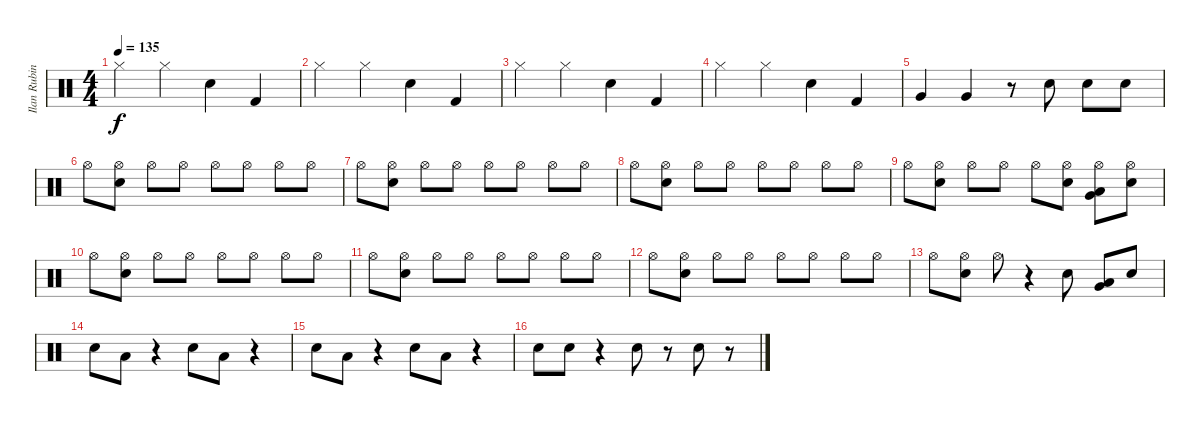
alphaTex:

\track ("Ilan Rubin" "Ilan Rubin") {instrument percussion}
\staff {score}
\articulation defaults
\ts (4 4)
\tempo 135
\clef neutral
\ks c "Hi-Hat (closed)".4{dy f} "Hi-Hat (closed)".4 "Electric Snare (hit)".4 "Kick (hit) 2".4
|
"Hi-Hat (closed)".4 "Hi-Hat (closed)".4 "Snare (hit) 2".4 "Kick (hit) 2".4 |
"Hi-Hat (closed)".4 "Hi-Hat (closed)".4 "Electric Snare (hit)".4 "Kick (hit) 2".4 |
"Hi-Hat (closed)".4 "Hi-Hat (closed)".4 "Snare (hit) 2".4 "Kick (hit) 2".4 |
"Very Low Tom (hit)".4 "Very Low Tom (hit)".4 r.8 "Electric Snare (hit)".8 "Electric Snare (hit)".8 "Electric Snare (hit)".8 |
"Hi-Hat (open)".8 ("Hi-Hat (open)" "Electric Snare (hit)").8 "Hi-Hat (open)".8 "Hi-Hat (open)".8 "Hi-Hat (open)".8 "Hi-Hat (open)".8 "Hi-Hat (open)".8 "Hi-Hat (open)".8 |
"Hi-Hat (open)".8 ("Hi-Hat (open)" "Electric Snare (hit)").8 "Hi-Hat (open)".8 "Hi-Hat (open)".8 "Hi-Hat (open)".8 "Hi-Hat (open)".8 "Hi-Hat (open)".8 "Hi-Hat (open)".8 |
"Hi-Hat (open)".8 ("Hi-Hat (open)" "Electric Snare (hit)").8 "Hi-Hat (open)".8 "Hi-Hat (open)".8 "Hi-Hat (open)".8 "Hi-Hat (open)".8 "Hi-Hat (open)".8 "Hi-Hat (open)".8 |
"Hi-Hat (open)".8 ("Hi-Hat (open)" "Electric Snare (hit)").8 "Hi-Hat (open)".8 "Hi-Hat (open)".8 "Hi-Hat (open)".8 ("Hi-Hat (open)" "Electric Snare (hit)").8 ("Hi-Hat (open)" "Very Low Tom (hit)" "Low Tom (hit)").8 ("Hi-Hat (open)" "Electric Snare (hit)").8 |
"Hi-Hat (open)".8 ("Hi-Hat (open)" "Electric Snare (hit)").8 "Hi-Hat (open)".8 "Hi-Hat (open)".8 "Hi-Hat (open)".8 "Hi-Hat (open)".8 "Hi-Hat (open)".8 "Hi-Hat (open)".8 |
"Hi-Hat (open)".8 ("Hi-Hat (open)" "Electric Snare (hit)").8 "Hi-Hat (open)".8 "Hi-Hat (open)".8 "Hi-Hat (open)".8 "Hi-Hat (open)".8 "Hi-Hat (open)".8 "Hi-Hat (open)".8 |
"Hi-Hat (open)".8 ("Hi-Hat (open)" "Electric Snare (hit)").8 "Hi-Hat (open)".8 "Hi-Hat (open)".8 "Hi-Hat (open)".8 "Hi-Hat (open)".8 "Hi-Hat (open)".8 "Hi-Hat (open)".8 |
"Hi-Hat (open)".8 ("Hi-Hat (open)" "Electric Snare (hit)").8 "Hi-Hat (open)".8 r.4 "Electric Snare (hit)".8 ("Very Low Tom (hit)" "Low Tom (hit)").8 "Electric Snare (hit)".8 |
"Electric Snare (hit)".8 "Low Tom (hit)".8 r.4 "Electric Snare (hit)".8 "Low Tom (hit)".8 r.4 |
"Electric Snare (hit)".8 "Low Tom (hit)".8 r.4 "Electric Snare (hit)".8 "Low Tom (hit)".8 r.4 |
"Electric Snare (hit)".8 "Electric Snare (hit)".8 r.4 "Electric Snare (hit)".8 r.8 "Electric Snare (hit)".8 r.8
